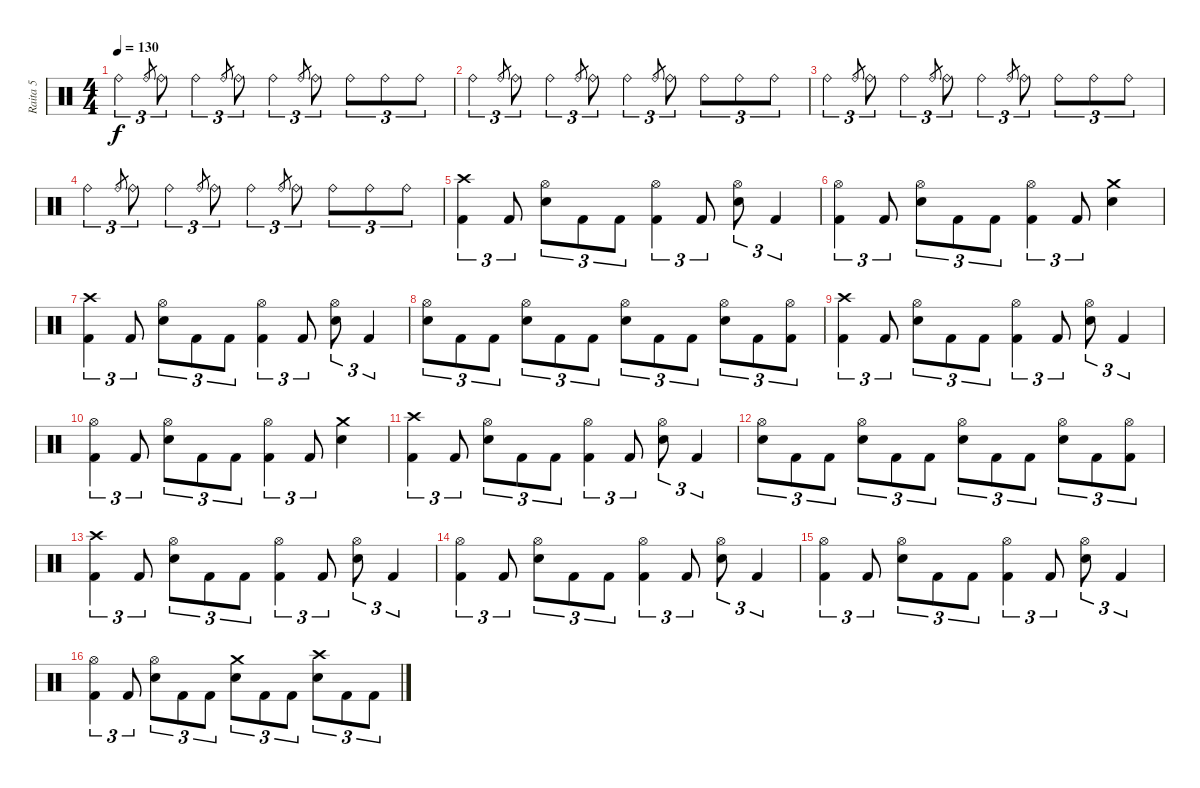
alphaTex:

\track ("Raita 5" "Raita 5") {instrument percussion}
\staff {score}
\articulation defaults
\ts (4 4)
\tempo 130
\clef neutral
\ks c "Ride (bell)".4{tu (3 2) dy f} "Ride (bell)".8{gr} "Ride (bell)".8{tu (3 2)} "Ride (bell)".4{tu (3 2)} "Ride (bell)".8{gr} "Ride (bell)".8{tu (3 2)} "Ride (bell)".4{tu (3 2)} "Ride (bell)".8{gr} "Ride (bell)".8{tu (3 2)} "Ride (bell)".8{tu (3 2)} "Ride (bell)".8{tu (3 2)} "Ride (bell)".8{tu (3 2)}
|
"Ride (bell)".4{tu (3 2)} "Ride (bell)".8{gr} "Ride (bell)".8{tu (3 2)} "Ride (bell)".4{tu (3 2)} "Ride (bell)".8{gr} "Ride (bell)".8{tu (3 2)} "Ride (bell)".4{tu (3 2)} "Ride (bell)".8{gr} "Ride (bell)".8{tu (3 2)} "Ride (bell)".8{tu (3 2)} "Ride (bell)".8{tu (3 2)} "Ride (bell)".8{tu (3 2)} |
"Ride (bell)".4{tu (3 2)} "Ride (bell)".8{gr} "Ride (bell)".8{tu (3 2)} "Ride (bell)".4{tu (3 2)} "Ride (bell)".8{gr} "Ride (bell)".8{tu (3 2)} "Ride (bell)".4{tu (3 2)} "Ride (bell)".8{gr} "Ride (bell)".8{tu (3 2)} "Ride (bell)".8{tu (3 2)} "Ride (bell)".8{tu (3 2)} "Ride (bell)".8{tu (3 2)} |
"Ride (bell)".4{tu (3 2)} "Ride (bell)".8{gr} "Ride (bell)".8{tu (3 2)} "Ride (bell)".4{tu (3 2)} "Ride (bell)".8{gr} "Ride (bell)".8{tu (3 2)} "Ride (bell)".4{tu (3 2)} "Ride (bell)".8{gr} "Ride (bell)".8{tu (3 2)} "Ride (bell)".8{tu (3 2)} "Ride (bell)".8{tu (3 2)} "Ride (bell)".8{tu (3 2)} |
("Crash high (hit)" "Kick (hit) 2").4{tu (3 2)} "Kick (hit) 2".8{tu (3 2)} ("Hi-Hat (open)" "Snare (hit) 2").8{tu (3 2)} "Kick (hit) 2".8{tu (3 2)} "Kick (hit) 2".8{tu (3 2)} ("Hi-Hat (open)" "Kick (hit) 2").4{tu (3 2)} "Kick (hit) 2".8{tu (3 2)} ("Hi-Hat (open)" "Snare (hit) 2").8{tu (3 2)} "Kick (hit) 2".4{tu (3 2)} |
("Hi-Hat (open)" "Kick (hit) 2").4{tu (3 2)} "Kick (hit) 2".8{tu (3 2)} ("Hi-Hat (open)" "Snare (hit) 2").8{tu (3 2)} "Kick (hit) 2".8{tu (3 2)} "Kick (hit) 2".8{tu (3 2)} ("Hi-Hat (open)" "Kick (hit) 2").4{tu (3 2)} "Kick (hit) 2".8{tu (3 2)} ("Crash medium (hit)" "Snare (hit) 2").4 |
("Crash high (hit)" "Kick (hit) 2").4{tu (3 2)} "Kick (hit) 2".8{tu (3 2)} ("Hi-Hat (open)" "Snare (hit) 2").8{tu (3 2)} "Kick (hit) 2".8{tu (3 2)} "Kick (hit) 2".8{tu (3 2)} ("Hi-Hat (open)" "Kick (hit) 2").4{tu (3 2)} "Kick (hit) 2".8{tu (3 2)} ("Hi-Hat (open)" "Snare (hit) 2").8{tu (3 2)} "Kick (hit) 2".4{tu (3 2)} |
("Hi-Hat (open)" "Snare (hit) 2").8{tu (3 2)} "Kick (hit) 2".8{tu (3 2)} "Kick (hit) 2".8{tu (3 2)} ("Hi-Hat (open)" "Snare (hit) 2").8{tu (3 2)} "Kick (hit) 2".8{tu (3 2)} "Kick (hit) 2".8{tu (3 2)} ("Hi-Hat (open)" "Snare (hit) 2").8{tu (3 2)} "Kick (hit) 2".8{tu (3 2)} "Kick (hit) 2".8{tu (3 2)} ("Hi-Hat (open)" "Snare (hit) 2").8{tu (3 2)} "Kick (hit) 2".8{tu (3 2)} ("Hi-Hat (open)" "Kick (hit) 2").8{tu (3 2)} |
("Crash high (hit)" "Kick (hit) 2").4{tu (3 2)} "Kick (hit) 2".8{tu (3 2)} ("Hi-Hat (open)" "Snare (hit) 2").8{tu (3 2)} "Kick (hit) 2".8{tu (3 2)} "Kick (hit) 2".8{tu (3 2)} ("Hi-Hat (open)" "Kick (hit) 2").4{tu (3 2)} "Kick (hit) 2".8{tu (3 2)} ("Hi-Hat (open)" "Snare (hit) 2").8{tu (3 2)} "Kick (hit) 2".4{tu (3 2)} |
("Hi-Hat (open)" "Kick (hit) 2").4{tu (3 2)} "Kick (hit) 2".8{tu (3 2)} ("Hi-Hat (open)" "Snare (hit) 2").8{tu (3 2)} "Kick (hit) 2".8{tu (3 2)} "Kick (hit) 2".8{tu (3 2)} ("Hi-Hat (open)" "Kick (hit) 2").4{tu (3 2)} "Kick (hit) 2".8{tu (3 2)} ("Crash medium (hit)" "Snare (hit) 2").4 |
("Crash high (hit)" "Kick (hit) 2").4{tu (3 2)} "Kick (hit) 2".8{tu (3 2)} ("Hi-Hat (open)" "Snare (hit) 2").8{tu (3 2)} "Kick (hit) 2".8{tu (3 2)} "Kick (hit) 2".8{tu (3 2)} ("Hi-Hat (open)" "Kick (hit) 2").4{tu (3 2)} "Kick (hit) 2".8{tu (3 2)} ("Hi-Hat (open)" "Snare (hit) 2").8{tu (3 2)} "Kick (hit) 2".4{tu (3 2)} |
("Hi-Hat (open)" "Snare (hit) 2").8{tu (3 2)} "Kick (hit) 2".8{tu (3 2)} "Kick (hit) 2".8{tu (3 2)} ("Hi-Hat (open)" "Snare (hit) 2").8{tu (3 2)} "Kick (hit) 2".8{tu (3 2)} "Kick (hit) 2".8{tu (3 2)} ("Hi-Hat (open)" "Snare (hit) 2").8{tu (3 2)} "Kick (hit) 2".8{tu (3 2)} "Kick (hit) 2".8{tu (3 2)} ("Hi-Hat (open)" "Snare (hit) 2").8{tu (3 2)} "Kick (hit) 2".8{tu (3 2)} ("Hi-Hat (open)" "Kick (hit) 2").8{tu (3 2)} |
("Crash high (hit)" "Kick (hit) 2").4{tu (3 2)} "Kick (hit) 2".8{tu (3 2)} ("Hi-Hat (open)" "Snare (hit) 2").8{tu (3 2)} "Kick (hit) 2".8{tu (3 2)} "Kick (hit) 2".8{tu (3 2)} ("Hi-Hat (open)" "Kick (hit) 2").4{tu (3 2)} "Kick (hit) 2".8{tu (3 2)} ("Hi-Hat (open)" "Snare (hit) 2").8{tu (3 2)} "Kick (hit) 2".4{tu (3 2)} |
("Hi-Hat (open)" "Kick (hit) 2").4{tu (3 2)} "Kick (hit) 2".8{tu (3 2)} ("Hi-Hat (open)" "Snare (hit) 2").8{tu (3 2)} "Kick (hit) 2".8{tu (3 2)} "Kick (hit) 2".8{tu (3 2)} ("Hi-Hat (open)" "Kick (hit) 2").4{tu (3 2)} "Kick (hit) 2".8{tu (3 2)} ("Hi-Hat (open)" "Snare (hit) 2").8{tu (3 2)} "Kick (hit) 2".4{tu (3 2)} |
("Hi-Hat (open)" "Kick (hit) 2").4{tu (3 2)} "Kick (hit) 2".8{tu (3 2)} ("Hi-Hat (open)" "Snare (hit) 2").8{tu (3 2)} "Kick (hit) 2".8{tu (3 2)} "Kick (hit) 2".8{tu (3 2)} ("Hi-Hat (open)" "Kick (hit) 2").4{tu (3 2)} "Kick (hit) 2".8{tu (3 2)} ("Hi-Hat (open)" "Snare (hit) 2").8{tu (3 2)} "Kick (hit) 2".4{tu (3 2)} |
("Hi-Hat (open)" "Kick (hit) 2").4{tu (3 2)} "Kick (hit) 2".8{tu (3 2)} ("Hi-Hat (open)" "Snare (hit) 2").8{tu (3 2)} "Kick (hit) 2".8{tu (3 2)} "Kick (hit) 2".8{tu (3 2)} ("Crash medium (hit)" "Snare (hit) 2").8{tu (3 2)} "Kick (hit) 2".8{tu (3 2)} "Kick (hit) 2".8{tu (3 2)} ("Crash high (hit)" "Snare (hit) 2").8{tu (3 2)} "Kick (hit) 2".8{tu (3 2)} "Kick (hit) 2".8{tu (3 2)}
